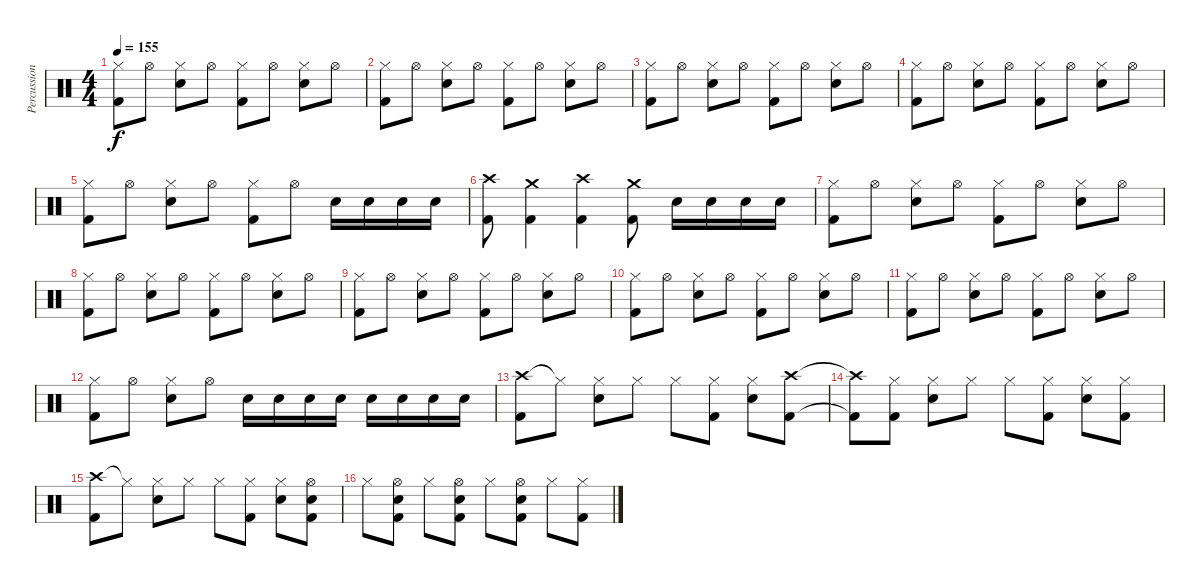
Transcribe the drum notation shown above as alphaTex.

\track ("Percussion" "Percussion") {instrument percussion}
\staff {score}
\articulation defaults
\ts (4 4)
\tempo 155
\clef neutral
\ks c
("Hi-Hat (closed)" "Kick (hit) 2").8{dy f} "Hi-Hat (open)".8 ("Hi-Hat (closed)" "Electric Snare (hit)").8 "Hi-Hat (open)".8 ("Hi-Hat (closed)" "Kick (hit) 2").8 "Hi-Hat (open)".8 ("Hi-Hat (closed)" "Electric Snare (hit)").8 "Hi-Hat (open)".8 |
("Hi-Hat (closed)" "Kick (hit) 2").8 "Hi-Hat (open)".8 ("Hi-Hat (closed)" "Electric Snare (hit)").8 "Hi-Hat (open)".8 ("Hi-Hat (closed)" "Kick (hit) 2").8 "Hi-Hat (open)".8 ("Hi-Hat (closed)" "Electric Snare (hit)").8 "Hi-Hat (open)".8 |
("Hi-Hat (closed)" "Kick (hit) 2").8 "Hi-Hat (open)".8 ("Hi-Hat (closed)" "Electric Snare (hit)").8 "Hi-Hat (open)".8 ("Hi-Hat (closed)" "Kick (hit) 2").8 "Hi-Hat (open)".8 ("Hi-Hat (closed)" "Electric Snare (hit)").8 "Hi-Hat (open)".8 |
("Hi-Hat (closed)" "Kick (hit) 2").8 "Hi-Hat (open)".8 ("Hi-Hat (closed)" "Electric Snare (hit)").8 "Hi-Hat (open)".8 ("Hi-Hat (closed)" "Kick (hit) 2").8 "Hi-Hat (open)".8 ("Hi-Hat (closed)" "Electric Snare (hit)").8 "Hi-Hat (open)".8 |
("Hi-Hat (closed)" "Kick (hit) 2").8 "Hi-Hat (open)".8 ("Hi-Hat (closed)" "Electric Snare (hit)").8 "Hi-Hat (open)".8 ("Hi-Hat (closed)" "Kick (hit) 2").8 "Hi-Hat (open)".8 "Electric Snare (hit)".16 "Electric Snare (hit)".16 "Electric Snare (hit)".16 "Electric Snare (hit)".16 |
("Crash high (hit)" "Kick (hit) 2").8 ("Crash medium (hit)" "Kick (hit) 2").4 ("Crash high (hit)" "Kick (hit) 2").4 ("Crash medium (hit)" "Kick (hit) 2").8 "Electric Snare (hit)".16 "Electric Snare (hit)".16 "Electric Snare (hit)".16 "Electric Snare (hit)".16 |
("Hi-Hat (closed)" "Kick (hit) 2").8 "Hi-Hat (open)".8 ("Hi-Hat (closed)" "Electric Snare (hit)").8 "Hi-Hat (open)".8 ("Hi-Hat (closed)" "Kick (hit) 2").8 "Hi-Hat (open)".8 ("Hi-Hat (closed)" "Electric Snare (hit)").8 "Hi-Hat (open)".8 |
("Hi-Hat (closed)" "Kick (hit) 2").8 "Hi-Hat (open)".8 ("Hi-Hat (closed)" "Electric Snare (hit)").8 "Hi-Hat (open)".8 ("Hi-Hat (closed)" "Kick (hit) 2").8 "Hi-Hat (open)".8 ("Hi-Hat (closed)" "Electric Snare (hit)").8 "Hi-Hat (open)".8 |
("Hi-Hat (closed)" "Kick (hit) 2").8 "Hi-Hat (open)".8 ("Hi-Hat (closed)" "Electric Snare (hit)").8 "Hi-Hat (open)".8 ("Hi-Hat (closed)" "Kick (hit) 2").8 "Hi-Hat (open)".8 ("Hi-Hat (closed)" "Electric Snare (hit)").8 "Hi-Hat (open)".8 |
("Hi-Hat (closed)" "Kick (hit) 2").8 "Hi-Hat (open)".8 ("Hi-Hat (closed)" "Electric Snare (hit)").8 "Hi-Hat (open)".8 ("Hi-Hat (closed)" "Kick (hit) 2").8 "Hi-Hat (open)".8 ("Hi-Hat (closed)" "Electric Snare (hit)").8 "Hi-Hat (open)".8 |
("Hi-Hat (closed)" "Kick (hit) 2").8 "Hi-Hat (open)".8 ("Hi-Hat (closed)" "Electric Snare (hit)").8 "Hi-Hat (open)".8 ("Hi-Hat (closed)" "Kick (hit) 2").8 "Hi-Hat (open)".8 ("Hi-Hat (closed)" "Electric Snare (hit)").8 "Hi-Hat (open)".8 |
("Hi-Hat (closed)" "Kick (hit) 2").8 "Hi-Hat (open)".8 ("Hi-Hat (closed)" "Electric Snare (hit)").8 "Hi-Hat (open)".8 "Electric Snare (hit)".16 "Electric Snare (hit)".16 "Electric Snare (hit)".16 "Electric Snare (hit)".16 "Electric Snare (hit)".16 "Electric Snare (hit)".16 "Electric Snare (hit)".16 "Electric Snare (hit)".16 |
("Crash high (hit)" "Kick (hit) 2").8 "Hi-Hat (closed)"{t}.8 ("Hi-Hat (closed)" "Electric Snare (hit)").8 "Hi-Hat (closed)".8 "Hi-Hat (closed)".8 ("Hi-Hat (closed)" "Kick (hit) 2").8 ("Hi-Hat (closed)" "Electric Snare (hit)").8 ("Crash high (hit)" "Kick (hit) 2").8 |
("Crash high (hit)"{t} "Kick (hit) 2"{t}).8 ("Hi-Hat (closed)" "Kick (hit) 2").8 ("Hi-Hat (closed)" "Electric Snare (hit)").8 "Hi-Hat (closed)".8 "Hi-Hat (closed)".8 ("Hi-Hat (closed)" "Kick (hit) 2").8 ("Hi-Hat (closed)" "Electric Snare (hit)").8 ("Hi-Hat (closed)" "Kick (hit) 2").8 |
("Crash high (hit)" "Kick (hit) 2").8 "Hi-Hat (closed)"{t}.8 ("Hi-Hat (closed)" "Electric Snare (hit)").8 "Hi-Hat (closed)".8 "Hi-Hat (closed)".8 ("Hi-Hat (closed)" "Kick (hit) 2").8 ("Hi-Hat (closed)" "Electric Snare (hit)").8 ("Hi-Hat (open)" "Electric Snare (hit)" "Kick (hit) 2").8 |
"Hi-Hat (closed)".8 ("Hi-Hat (open)" "Electric Snare (hit)" "Kick (hit) 2").8 "Hi-Hat (closed)".8 ("Hi-Hat (open)" "Electric Snare (hit)" "Kick (hit) 2").8 "Hi-Hat (closed)".8 ("Hi-Hat (open)" "Electric Snare (hit)" "Kick (hit) 2").8 "Hi-Hat (closed)".8 ("Hi-Hat (closed)" "Kick (hit) 2").8
